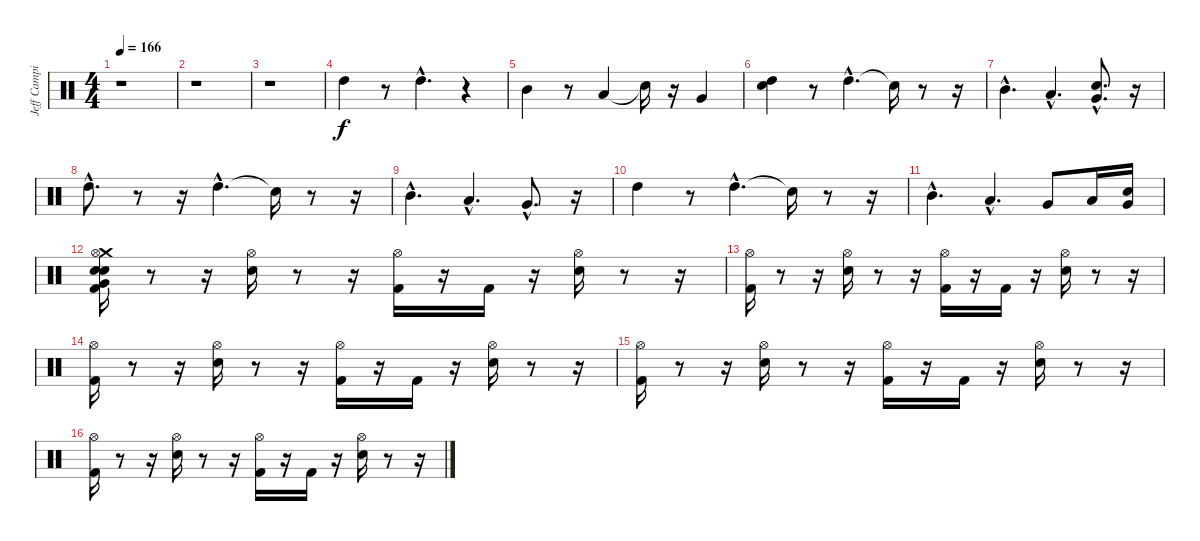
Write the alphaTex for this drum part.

\track ("Jeff Campitelli" "Jeff Campi") {instrument percussion}
\staff {score}
\articulation defaults
\ts (4 4)
\tempo 166
\clef neutral
\ks c
r.1{dy f} |
r.1 |
r.1 |
"High Tom (hit)".4 r.8 "High Tom (hit)"{hac}.4{d} r.4 |
"Mid Tom (hit)".4 r.8 "Low Tom (hit)".4 "Snare (hit)"{t}.16 r.16 "Very Low Tom (hit)".4 |
("Snare (hit)" "High Tom (hit)").4 r.8 "High Tom (hit)"{hac}.4{d} "Snare (hit)"{t}.16 r.8 r.16 |
"Mid Tom (hit)"{hac}.4{d} "Low Tom (hit)"{hac}.4{d} ("Snare (hit)"{hac} "Very Low Tom (hit)"{hac}).8{d} r.16 |
"High Tom (hit)"{hac}.8{d} r.8 r.16 "High Tom (hit)"{hac}.4{d} "Snare (hit)"{t}.16 r.8 r.16 |
"Mid Tom (hit)"{hac}.4{d} "Low Tom (hit)"{hac}.4{d} "Very Low Tom (hit)"{hac}.8{d} r.16 |
"High Tom (hit)".4 r.8 "High Tom (hit)"{hac}.4{d} "Snare (hit)"{t}.16 r.8 r.16 |
"Mid Tom (hit)"{hac}.4{d} "Low Tom (hit)"{hac}.4{d} "Very Low Tom (hit)".8 "Low Tom (hit)".16 ("Snare (hit)" "Very Low Tom (hit)").16 |
("Snare (hit)" "Electric Snare (hit)" "Crash medium (hit)" "Kick (hit) 2" "Hi-Hat (open)" "Very Low Tom (hit)").16 r.8 r.16 ("Hi-Hat (open)" "Snare (hit) 2").16 r.8 r.16 ("Hi-Hat (open)" "Kick (hit) 2").16 r.16 "Kick (hit) 2".16 r.16 ("Hi-Hat (open)" "Snare (hit) 2").16 r.8 r.16 |
("Kick (hit) 2" "Hi-Hat (open)").16 r.8 r.16 ("Hi-Hat (open)" "Snare (hit) 2").16 r.8 r.16 ("Hi-Hat (open)" "Kick (hit) 2").16 r.16 "Kick (hit) 2".16 r.16 ("Hi-Hat (open)" "Snare (hit) 2").16 r.8 r.16 |
("Kick (hit) 2" "Hi-Hat (open)").16 r.8 r.16 ("Hi-Hat (open)" "Snare (hit) 2").16 r.8 r.16 ("Hi-Hat (open)" "Kick (hit) 2").16 r.16 "Kick (hit) 2".16 r.16 ("Hi-Hat (open)" "Snare (hit) 2").16 r.8 r.16 |
("Kick (hit) 2" "Hi-Hat (open)").16 r.8 r.16 ("Hi-Hat (open)" "Snare (hit) 2").16 r.8 r.16 ("Hi-Hat (open)" "Kick (hit) 2").16 r.16 "Kick (hit) 2".16 r.16 ("Hi-Hat (open)" "Snare (hit) 2").16 r.8 r.16 |
("Kick (hit) 2" "Hi-Hat (open)").16 r.8 r.16 ("Hi-Hat (open)" "Snare (hit) 2").16 r.8 r.16 ("Hi-Hat (open)" "Kick (hit) 2").16 r.16 "Kick (hit) 2".16 r.16 ("Hi-Hat (open)" "Snare (hit) 2").16 r.8 r.16
